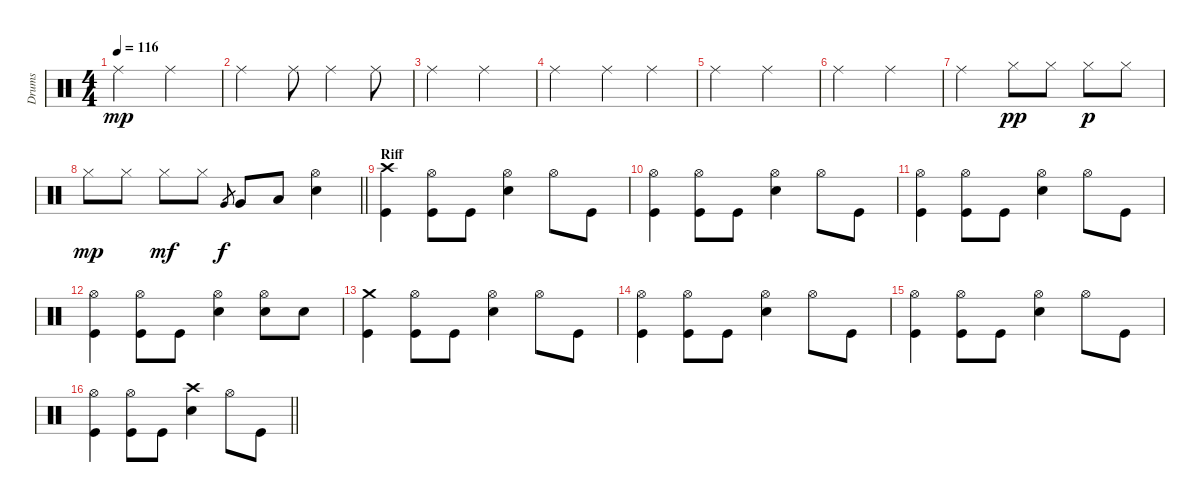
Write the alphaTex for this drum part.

\track ("Drums" "Drums") {instrument percussion}
\staff {score}
\articulation defaults
\ts (4 4)
\tempo 116
\clef neutral
\ks c "Ride (middle)".2{dy mp} "Ride (middle)".2
|
"Ride (middle)".2 "Ride (middle)".8 "Ride (middle)".4 "Ride (middle)".8 |
"Ride (middle)".2 "Ride (middle)".2 |
"Ride (middle)".2 "Ride (middle)".4 "Ride (middle)".4 |
"Ride (middle)".2 "Ride (middle)".2 |
"Ride (middle)".2 "Ride (middle)".2 |
"Ride (middle)".2 "Hi-Hat (closed)".8{dy pp} "Hi-Hat (closed)".8 "Hi-Hat (closed)".8{dy p} "Hi-Hat (closed)".8 |
\barLineRight lightlight "Hi-Hat (closed)".8{dy mp} "Hi-Hat (closed)".8 "Hi-Hat (closed)".8{dy mf} "Hi-Hat (closed)".8 "Very Low Tom (hit)".8{gr dy f} "Very Low Tom (hit)".8 "Low Floor Tom (hit)".8
("Hi-Hat (open)" "Electric Snare (hit)").4 |
\section ("" "Riff")
("Crash high (hit)" "Kick (hit)").4 ("Hi-Hat (open)" "Kick (hit)").8 "Kick (hit)".8 ("Hi-Hat (open)" "Electric Snare (hit)").4 "Hi-Hat (open)".8 "Kick (hit)".8 |
("Hi-Hat (open)" "Kick (hit)").4 ("Hi-Hat (open)" "Kick (hit)").8 "Kick (hit)".8 ("Hi-Hat (open)" "Electric Snare (hit)").4 "Hi-Hat (open)".8 "Kick (hit)".8 |
("Hi-Hat (open)" "Kick (hit)").4 ("Hi-Hat (open)" "Kick (hit)").8 "Kick (hit)".8 ("Hi-Hat (open)" "Electric Snare (hit)").4 "Hi-Hat (open)".8 "Kick (hit)".8 |
("Hi-Hat (open)" "Kick (hit)").4 ("Hi-Hat (open)" "Kick (hit)").8 "Kick (hit)".8 ("Hi-Hat (open)" "Electric Snare (hit)").4 ("Hi-Hat (open)" "Electric Snare (hit)").8 "Electric Snare (hit)".8 |
("Crash medium (hit)" "Kick (hit)").4 ("Hi-Hat (open)" "Kick (hit)").8 "Kick (hit)".8 ("Hi-Hat (open)" "Electric Snare (hit)").4 "Hi-Hat (open)".8 "Kick (hit)".8 |
("Hi-Hat (open)" "Kick (hit)").4 ("Hi-Hat (open)" "Kick (hit)").8 "Kick (hit)".8 ("Hi-Hat (open)" "Electric Snare (hit)").4 "Hi-Hat (open)".8 "Kick (hit)".8 |
("Hi-Hat (open)" "Kick (hit)").4 ("Hi-Hat (open)" "Kick (hit)").8 "Kick (hit)".8 ("Hi-Hat (open)" "Electric Snare (hit)").4 "Hi-Hat (open)".8 "Kick (hit)".8 |
\barLineRight lightlight
("Hi-Hat (open)" "Kick (hit)").4 ("Hi-Hat (open)" "Kick (hit)").8 "Kick (hit)".8 ("Crash high (hit)" "Electric Snare (hit)").4 "Hi-Hat (open)".8 "Kick (hit)".8
